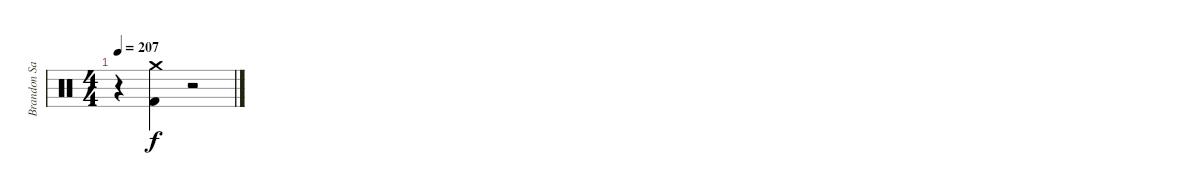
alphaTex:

\track ("Brandon Saller" "Brandon Sa") {instrument percussion}
\staff {score}
\articulation defaults
\ts (4 4)
\tempo 207
\clef neutral
\ks c
r.4{dy f} ("Crash medium (hit)" "Kick (hit) 2").4 r.2{volume 0}
